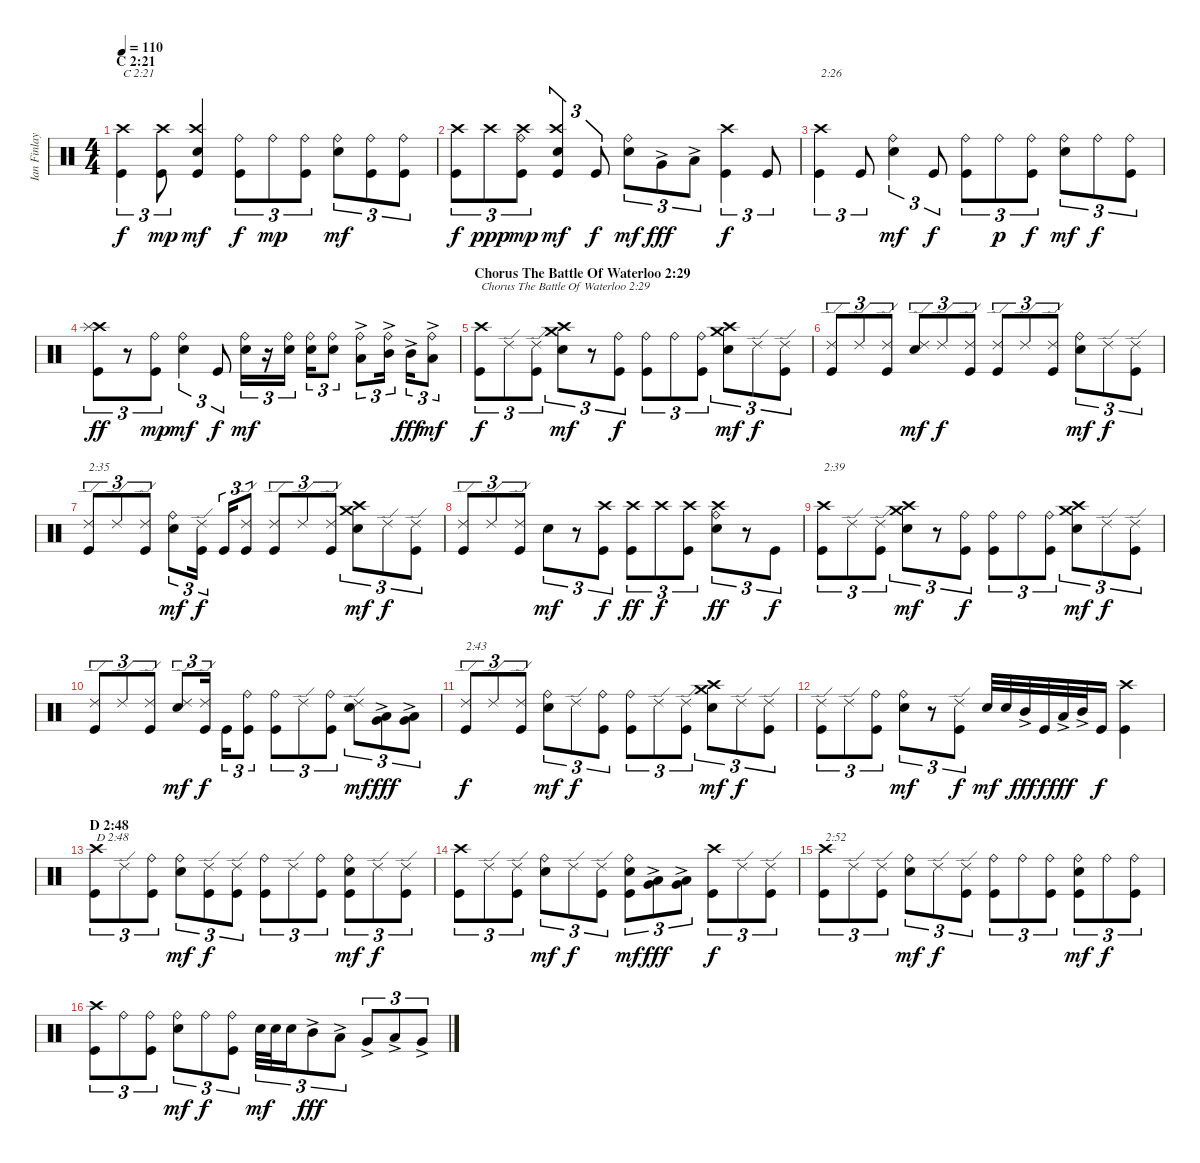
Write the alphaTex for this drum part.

\track ("Ian Finlay" "Ian Finlay") {instrument percussion}
\staff {score}
\articulation defaults
\ts (4 4)
\section ("" "C 2:21")
\tempo 110
\clef neutral
\ks c
("Kick (hit)" "Crash high (hit)").4{tu (3 2) txt "C 2:21" dy f} ("Kick (hit)" "Crash high (hit)").8{tu (3 2) dy mp} ("Kick (hit)" "Snare (hit) 2" "Crash high (hit)").4{dy mf} ("Kick (hit)" "Ride (bell)").8{tu (3 2) dy f} "Ride (bell)".8{tu (3 2) dy mp} ("Kick (hit)" "Ride (bell)").8{tu (3 2)} ("Snare (hit) 2" "Ride (bell)").8{tu (3 2) dy mf} ("Kick (hit)" "Ride (bell)").8{tu (3 2)} ("Kick (hit)" "Ride (bell)").8{tu (3 2)} |
("Kick (hit)" "Crash high (hit)").8{tu (3 2) dy f} "Crash high (hit)".8{tu (3 2) dy ppp} ("Kick (hit)" "Ride (bell)" "Crash high (hit)").8{tu (3 2) dy mp} ("Kick (hit)" "Snare (hit) 2" "Crash high (hit)").4{tu (3 2) dy mf} "Kick (hit)".8{tu (3 2) dy f} ("Snare (hit) 2" "Ride (bell)").8{tu (3 2) dy mf} "Very Low Tom (hit)"{ac}.8{tu (3 2) dy fff} "Low Tom (hit)"{ac}.8{tu (3 2)} ("Kick (hit)" "Crash high (hit)").4{tu (3 2) dy f} "Kick (hit)".8{tu (3 2)} |
("Kick (hit)" "Crash high (hit)").4{tu (3 2) txt "2:26"} "Kick (hit)".8{tu (3 2)} ("Snare (hit) 2" "Ride (bell)").4{tu (3 2) dy mf} "Kick (hit)".8{tu (3 2) dy f} ("Kick (hit)" "Ride (bell)").8{tu (3 2)} "Ride (bell)".8{tu (3 2) dy p} ("Kick (hit)" "Ride (bell)").8{tu (3 2) dy f} ("Snare (hit) 2" "Ride (bell)").8{tu (3 2) dy mf} "Ride (bell)".8{tu (3 2) dy f} ("Kick (hit)" "Ride (bell)").8{tu (3 2)} |
("Kick (hit)" "Crash high (hit)" "Splash (hit)").8{tu (3 2) dy ff} r.8{tu (3 2)} ("Kick (hit)" "Ride (bell)").8{tu (3 2) dy mp} ("Snare (hit) 2" "Ride (bell)").4{tu (3 2) dy mf} "Kick (hit)".8{tu (3 2) dy f} ("Snare (hit) 2" "Ride (bell)").16{tu (3 2) dy mf} r.16{tu (3 2)} ("Snare (hit) 2" "Ride (bell)").16{tu (3 2)} ("Snare (hit) 2" "Ride (bell)").16{tu (3 2)} ("Snare (hit) 2" "Ride (bell)").8{tu (3 2)} ("Low Tom (hit)"{ac} "Ride (bell)").8{tu (3 2)} ("Mid Tom (hit)"{ac} "Ride (bell)").16{tu (3 2)} "Mid Tom (hit)"{ac}.16{tu (3 2) dy fff} ("Low Tom (hit)"{ac} "Ride (bell)").8{tu (3 2) dy mf} |
\section ("" "Chorus The Battle Of Waterloo 2:29")
("Kick (hit)" "Crash high (hit)").8{tu (3 2) txt "Chorus The Battle Of Waterloo 2:29" dy f} "Ride (edge) 2".8{tu (3 2)} ("Kick (hit)" "Ride (edge) 2").8{tu (3 2)} ("Snare (hit) 2" "Crash medium (hit)" "Crash high (hit)").8{tu (3 2) dy mf} r.8{tu (3 2)} ("Kick (hit)" "Ride (bell)").8{tu (3 2) dy f} ("Kick (hit)" "Ride (bell)").8{tu (3 2)} "Ride (bell)".8{tu (3 2)} ("Kick (hit)" "Ride (bell)").8{tu (3 2)} ("Snare (hit) 2" "Crash medium (hit)" "Crash high (hit)").8{tu (3 2) dy mf} "Ride (edge) 2".8{tu (3 2) dy f} ("Kick (hit)" "Ride (edge) 2").8{tu (3 2)} |
("Kick (hit)" "Ride (edge) 2").8{tu (3 2)} "Ride (edge) 2".8{tu (3 2)} ("Kick (hit)" "Ride (edge) 2").8{tu (3 2)} ("Snare (hit) 2" "Ride (edge) 2").8{tu (3 2) dy mf} "Ride (edge) 2".8{tu (3 2) dy f} ("Kick (hit)" "Ride (edge) 2").8{tu (3 2)} ("Kick (hit)" "Ride (edge) 2").8{tu (3 2)} "Ride (edge) 2".8{tu (3 2)} ("Kick (hit)" "Ride (edge) 2").8{tu (3 2)} ("Snare (hit) 2" "Ride (bell)").8{tu (3 2) dy mf} "Ride (edge) 2".8{tu (3 2) dy f} ("Kick (hit)" "Ride (edge) 2").8{tu (3 2)} |
("Kick (hit)" "Ride (edge) 2").8{tu (3 2) txt "2:35"} "Ride (edge) 2".8{tu (3 2)} ("Kick (hit)" "Ride (edge) 2").8{tu (3 2)} ("Snare (hit) 2" "Ride (bell)").8{tu (3 2) dy mf} ("Kick (hit)" "Ride (edge) 2").16{tu (3 2) dy f} "Kick (hit)".16{tu (3 2)} ("Kick (hit)" "Ride (edge) 2").8{tu (3 2)} ("Kick (hit)" "Ride (edge) 2").8{tu (3 2)} "Ride (edge) 2".8{tu (3 2)} ("Kick (hit)" "Ride (edge) 2").8{tu (3 2)} ("Snare (hit) 2" "Crash medium (hit)" "Crash high (hit)").8{tu (3 2) dy mf} "Ride (edge) 2".8{tu (3 2) dy f} ("Kick (hit)" "Ride (edge) 2").8{tu (3 2)} |
("Kick (hit)" "Ride (edge) 2").8{tu (3 2)} "Ride (edge) 2".8{tu (3 2)} ("Kick (hit)" "Ride (edge) 2").8{tu (3 2)} "Snare (hit) 2".8{tu (3 2) dy mf} r.8{tu (3 2)} ("Kick (hit)" "Crash high (hit)").8{tu (3 2) dy f} ("Kick (hit)" "Crash high (hit)").8{tu (3 2) dy ff} "Crash high (hit)".8{tu (3 2) dy f} ("Kick (hit)" "Crash high (hit)").8{tu (3 2)} ("Snare (hit) 2" "Ride (bell)" "Crash high (hit)").8{tu (3 2) dy ff} r.8{tu (3 2)} "Kick (hit)".8{tu (3 2) dy f} |
("Kick (hit)" "Crash high (hit)").8{tu (3 2) txt "2:39"} "Ride (edge) 2".8{tu (3 2)} ("Kick (hit)" "Ride (edge) 2").8{tu (3 2)} ("Snare (hit) 2" "Crash medium (hit)" "Crash high (hit)").8{tu (3 2) dy mf} r.8{tu (3 2)} ("Kick (hit)" "Ride (bell)").8{tu (3 2) dy f} ("Kick (hit)" "Ride (bell)").8{tu (3 2)} "Ride (bell)".8{tu (3 2)} ("Kick (hit)" "Ride (bell)").8{tu (3 2)} ("Snare (hit) 2" "Crash medium (hit)" "Crash high (hit)").8{tu (3 2) dy mf} "Ride (edge) 2".8{tu (3 2) dy f} ("Kick (hit)" "Ride (edge) 2").8{tu (3 2)} |
("Kick (hit)" "Ride (edge) 2").8{tu (3 2)} "Ride (edge) 2".8{tu (3 2)} ("Kick (hit)" "Ride (edge) 2").8{tu (3 2)} ("Snare (hit) 2" "Ride (edge) 2").8{tu (3 2) dy mf} ("Kick (hit)" "Ride (edge) 2").16{tu (3 2) dy f} "Kick (hit)".16{tu (3 2)} ("Kick (hit)" "Ride (bell)").8{tu (3 2)} ("Kick (hit)" "Ride (bell)").8{tu (3 2)} "Ride (edge) 2".8{tu (3 2)} ("Kick (hit)" "Ride (bell)").8{tu (3 2)} ("Snare (hit) 2" "Ride (edge) 2").8{tu (3 2) dy mf} ("Very Low Tom (hit)"{ac} "Low Floor Tom (hit)"{ac}).8{tu (3 2) dy fff} ("Very Low Tom (hit)"{ac} "Low Tom (hit)"{ac}).8{tu (3 2)} |
("Kick (hit)" "Ride (edge) 2").8{tu (3 2) txt "2:43" dy f} "Ride (edge) 2".8{tu (3 2)} ("Kick (hit)" "Ride (edge) 2").8{tu (3 2)} ("Snare (hit) 2" "Ride (bell)").8{tu (3 2) dy mf} "Ride (edge) 2".8{tu (3 2) dy f} ("Kick (hit)" "Ride (bell)").8{tu (3 2)} ("Kick (hit)" "Ride (bell)").8{tu (3 2)} "Ride (edge) 2".8{tu (3 2)} ("Kick (hit)" "Ride (edge) 2").8{tu (3 2)} ("Snare (hit) 2" "Crash medium (hit)" "Crash high (hit)").8{tu (3 2) dy mf} "Ride (edge) 2".8{tu (3 2) dy f} ("Kick (hit)" "Ride (edge) 2").8{tu (3 2)} |
("Kick (hit)" "Ride (edge) 2").8{tu (3 2)} "Ride (edge) 2".8{tu (3 2)} ("Kick (hit)" "Ride (bell)").8{tu (3 2)} ("Snare (hit) 2" "Ride (bell)").8{tu (3 2) dy mf} r.8{tu (3 2)} ("Kick (hit)" "Ride (edge) 2").8{tu (3 2) dy f} "Snare (hit) 2".32{dy mf} "Snare (hit) 2".32 "Mid Tom (hit)"{ac}.32{dy fff} "Kick (hit)".32{dy f} "Low Tom (hit)"{ac}.32{dy fff} "Mid Tom (hit)"{ac}.32 "Kick (hit)".16{dy f} ("Kick (hit)" "Crash high (hit)").4 |
\section ("" "D 2:48")
("Kick (hit)" "Crash high (hit)").8{tu (3 2) txt "D 2:48"} "Ride (edge) 2".8{tu (3 2)} ("Kick (hit)" "Ride (bell)").8{tu (3 2)} ("Snare (hit) 2" "Ride (bell)").8{tu (3 2) dy mf} ("Kick (hit)" "Ride (edge) 2").8{tu (3 2) dy f} ("Kick (hit)" "Ride (edge) 2").8{tu (3 2)} ("Kick (hit)" "Ride (bell)").8{tu (3 2)} "Ride (edge) 2".8{tu (3 2)} ("Kick (hit)" "Ride (bell)").8{tu (3 2)} ("Kick (hit)" "Snare (hit) 2" "Ride (bell)").8{tu (3 2) dy mf} "Ride (edge) 2".8{tu (3 2) dy f} ("Kick (hit)" "Ride (edge) 2").8{tu (3 2)} |
("Kick (hit)" "Crash high (hit)").8{tu (3 2)} "Ride (edge) 2".8{tu (3 2)} ("Kick (hit)" "Ride (edge) 2").8{tu (3 2)} ("Snare (hit) 2" "Ride (bell)").8{tu (3 2) dy mf} "Ride (edge) 2".8{tu (3 2) dy f} ("Kick (hit)" "Ride (edge) 2").8{tu (3 2)} ("Kick (hit)" "Snare (hit) 2" "Ride (bell)").8{tu (3 2) dy mf} ("Low Tom (hit)"{ac} "Very Low Tom (hit)"{ac}).8{tu (3 2) dy fff} ("Low Floor Tom (hit)"{ac} "Very Low Tom (hit)"{ac}).8{tu (3 2)} ("Kick (hit)" "Crash high (hit)").8{tu (3 2) dy f} "Ride (edge) 2".8{tu (3 2)} ("Kick (hit)" "Ride (edge) 2").8{tu (3 2)} |
("Kick (hit)" "Crash high (hit)").8{tu (3 2) txt "2:52"} "Ride (edge) 2".8{tu (3 2)} ("Kick (hit)" "Ride (edge) 2").8{tu (3 2)} ("Snare (hit) 2" "Ride (bell)").8{tu (3 2) dy mf} "Ride (edge) 2".8{tu (3 2) dy f} ("Kick (hit)" "Ride (edge) 2").8{tu (3 2)} ("Kick (hit)" "Ride (bell)").8{tu (3 2)} "Ride (bell)".8{tu (3 2)} ("Kick (hit)" "Ride (bell)").8{tu (3 2)} ("Kick (hit)" "Snare (hit) 2" "Ride (bell)").8{tu (3 2) dy mf} "Ride (bell)".8{tu (3 2) dy f} ("Kick (hit)" "Ride (bell)").8{tu (3 2)} |
("Kick (hit)" "Crash high (hit)").8{tu (3 2)} "Ride (bell)".8{tu (3 2)} ("Kick (hit)" "Ride (bell)").8{tu (3 2)} ("Snare (hit) 2" "Ride (bell)").8{tu (3 2) dy mf} "Ride (bell)".8{tu (3 2) dy f} ("Kick (hit)" "Ride (bell)").8{tu (3 2)} "Snare (hit) 2".32{tu (3 2) dy mf} "Snare (hit) 2".32{tu (3 2)} "Snare (hit) 2".16{tu (3 2)} "Mid Tom (hit)"{ac}.8{tu (3 2) dy fff} "Low Tom (hit)"{ac}.8{tu (3 2)} "Very Low Tom (hit)"{ac}.8{tu (3 2)} "Low Tom (hit)"{ac}.8{tu (3 2)} "Very Low Tom (hit)"{ac}.8{tu (3 2)}
